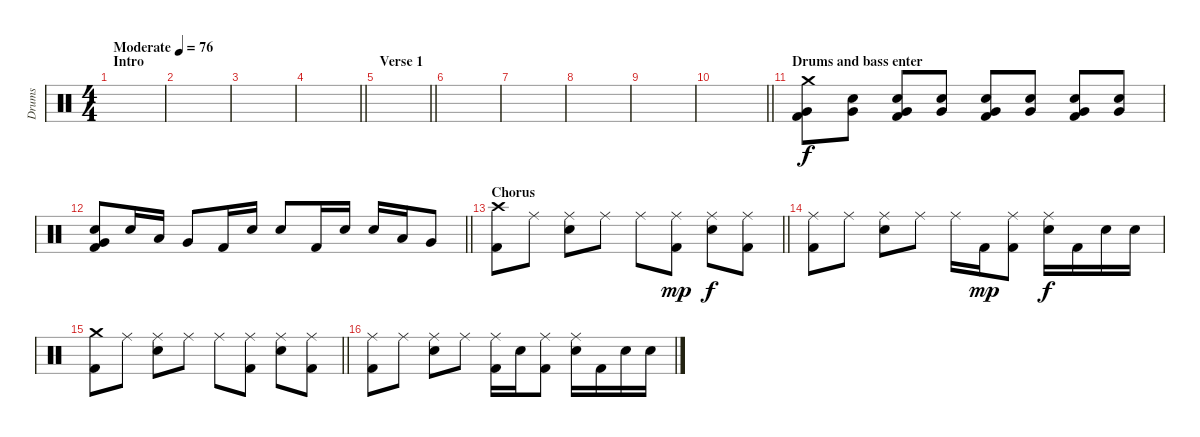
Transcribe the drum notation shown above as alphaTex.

\track ("Drums" "Drums") {instrument percussion}
\staff {score}
\articulation defaults
\ts (4 4)
\section ("" "Intro")
\tempo (76 "Moderate")
\clef neutral
\ks c
|
|
|
\barLineRight lightlight
|
\section ("" "Verse 1")
\barLineRight lightlight
|
\section ("" "")
|
|
|
|
\barLineRight lightlight
|
\section ("" "Drums and bass enter")
("Crash medium (hit)" "Very Low Tom (hit)" "Kick (hit) 2").8 ("Snare (hit) 2" "Very Low Tom (hit)").8 ("Snare (hit) 2" "Very Low Tom (hit)" "Kick (hit) 2").8 ("Snare (hit) 2" "Very Low Tom (hit)").8 ("Snare (hit) 2" "Very Low Tom (hit)" "Kick (hit) 2").8 ("Snare (hit) 2" "Very Low Tom (hit)").8 ("Snare (hit) 2" "Very Low Tom (hit)" "Kick (hit) 2").8 ("Snare (hit) 2" "Very Low Tom (hit)").8 |
\barLineRight lightlight
("Snare (hit) 2" "Very Low Tom (hit)" "Kick (hit) 2").8 "Snare (hit) 2".16 "Low Tom (hit)".16 "Very Low Tom (hit)".8 "Kick (hit) 2".16 "Snare (hit) 2".16 "Snare (hit) 2".8 "Kick (hit) 2".16 "Snare (hit) 2".16 "Snare (hit) 2".16 "Low Tom (hit)".16 "Very Low Tom (hit)".8 |
\section ("" "Chorus")
\barLineRight lightlight
("Crash high (hit)" "Kick (hit) 2").8 "Ride (middle)".8 ("Ride (middle)" "Snare (hit) 2").8 "Ride (middle)".8 "Ride (middle)".8 ("Ride (middle)" "Kick (hit) 2").8{dy mp} ("Ride (middle)" "Snare (hit) 2").8{dy f} ("Ride (middle)" "Kick (hit) 2").8 |
\section ("" "")
("Ride (middle)" "Kick (hit) 2").8 "Ride (middle)".8 ("Ride (middle)" "Snare (hit) 2").8 "Ride (middle)".8 "Ride (middle)".16 "Kick (hit) 2".16{dy mp} ("Ride (middle)" "Kick (hit) 2").8 ("Ride (middle)" "Snare (hit) 2").16{dy f} "Kick (hit) 2".16 "Snare (hit) 2".16 "Snare (hit) 2".16 |
\barLineRight lightlight
("Crash medium (hit)" "Kick (hit) 2").8 "Ride (middle)".8 ("Ride (middle)" "Snare (hit) 2").8 "Ride (middle)".8 "Ride (middle)".8 ("Ride (middle)" "Kick (hit) 2").8 ("Ride (middle)" "Snare (hit) 2").8 ("Ride (middle)" "Kick (hit) 2").8 |
("Ride (middle)" "Kick (hit) 2").8 "Ride (middle)".8 ("Ride (middle)" "Snare (hit) 2").8 "Ride (middle)".8 ("Ride (middle)" "Kick (hit) 2").16 "Snare (hit) 2".16 ("Ride (middle)" "Kick (hit) 2").8 ("Ride (middle)" "Snare (hit) 2").16 "Kick (hit) 2".16 "Snare (hit) 2".16 "Snare (hit) 2".16
